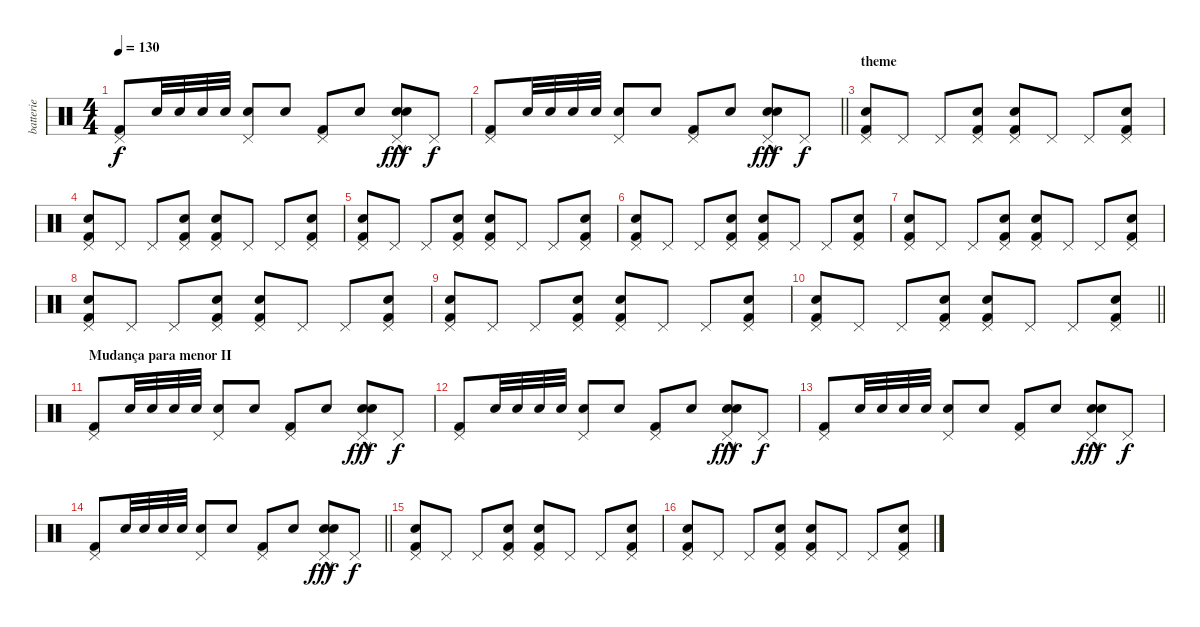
\track ("batterie" "batterie") {instrument percussion}
\staff {score}
\articulation defaults
\ts (4 4)
\tempo 130
\clef neutral
\ks c
("Pedal Hi-Hat (hit)" "Kick (hit) 2").8{dy f} "Snare (hit) 2".32 "Snare (hit) 2".32 "Snare (hit) 2".32 "Snare (hit) 2".32 ("Pedal Hi-Hat (hit)" "Snare (hit) 2").8 "Snare (hit) 2".8 ("Pedal Hi-Hat (hit)" "Kick (hit) 2").8 "Snare (hit) 2".8 ("Pedal Hi-Hat (hit)" "Snare (hit) 2"{hac} "Snare (hit) 2"{hac}).8{dy fff} "Pedal Hi-Hat (hit)".8{dy f} |
\barLineRight lightlight
("Pedal Hi-Hat (hit)" "Kick (hit) 2").8 "Snare (hit) 2".32 "Snare (hit) 2".32 "Snare (hit) 2".32 "Snare (hit) 2".32 ("Pedal Hi-Hat (hit)" "Snare (hit) 2").8 "Snare (hit) 2".8 ("Pedal Hi-Hat (hit)" "Kick (hit) 2").8 "Snare (hit) 2".8 ("Pedal Hi-Hat (hit)" "Snare (hit) 2"{hac} "Snare (hit) 2"{hac}).8{dy fff} "Pedal Hi-Hat (hit)".8{dy f} |
\section ("" "theme")
("Pedal Hi-Hat (hit)" "Snare (hit) 2" "Kick (hit) 2").8 "Pedal Hi-Hat (hit)".8 "Pedal Hi-Hat (hit)".8 ("Pedal Hi-Hat (hit)" "Snare (hit) 2" "Kick (hit) 2").8 ("Pedal Hi-Hat (hit)" "Snare (hit) 2" "Kick (hit) 2").8 "Pedal Hi-Hat (hit)".8 "Pedal Hi-Hat (hit)".8 ("Pedal Hi-Hat (hit)" "Snare (hit) 2" "Kick (hit) 2").8 |
("Pedal Hi-Hat (hit)" "Snare (hit) 2" "Kick (hit) 2").8 "Pedal Hi-Hat (hit)".8 "Pedal Hi-Hat (hit)".8 ("Pedal Hi-Hat (hit)" "Snare (hit) 2" "Kick (hit) 2").8 ("Pedal Hi-Hat (hit)" "Snare (hit) 2" "Kick (hit) 2").8 "Pedal Hi-Hat (hit)".8 "Pedal Hi-Hat (hit)".8 ("Pedal Hi-Hat (hit)" "Snare (hit) 2" "Kick (hit) 2").8 |
("Pedal Hi-Hat (hit)" "Snare (hit) 2" "Kick (hit) 2").8 "Pedal Hi-Hat (hit)".8 "Pedal Hi-Hat (hit)".8 ("Pedal Hi-Hat (hit)" "Snare (hit) 2" "Kick (hit) 2").8 ("Pedal Hi-Hat (hit)" "Snare (hit) 2" "Kick (hit) 2").8 "Pedal Hi-Hat (hit)".8 "Pedal Hi-Hat (hit)".8 ("Pedal Hi-Hat (hit)" "Snare (hit) 2" "Kick (hit) 2").8 |
("Pedal Hi-Hat (hit)" "Snare (hit) 2" "Kick (hit) 2").8 "Pedal Hi-Hat (hit)".8 "Pedal Hi-Hat (hit)".8 ("Pedal Hi-Hat (hit)" "Snare (hit) 2" "Kick (hit) 2").8 ("Pedal Hi-Hat (hit)" "Snare (hit) 2" "Kick (hit) 2").8 "Pedal Hi-Hat (hit)".8 "Pedal Hi-Hat (hit)".8 ("Pedal Hi-Hat (hit)" "Snare (hit) 2" "Kick (hit) 2").8 |
("Pedal Hi-Hat (hit)" "Snare (hit) 2" "Kick (hit) 2").8 "Pedal Hi-Hat (hit)".8 "Pedal Hi-Hat (hit)".8 ("Pedal Hi-Hat (hit)" "Snare (hit) 2" "Kick (hit) 2").8 ("Pedal Hi-Hat (hit)" "Snare (hit) 2" "Kick (hit) 2").8 "Pedal Hi-Hat (hit)".8 "Pedal Hi-Hat (hit)".8 ("Pedal Hi-Hat (hit)" "Snare (hit) 2" "Kick (hit) 2").8 |
("Pedal Hi-Hat (hit)" "Snare (hit) 2" "Kick (hit) 2").8 "Pedal Hi-Hat (hit)".8 "Pedal Hi-Hat (hit)".8 ("Pedal Hi-Hat (hit)" "Snare (hit) 2" "Kick (hit) 2").8 ("Pedal Hi-Hat (hit)" "Snare (hit) 2" "Kick (hit) 2").8 "Pedal Hi-Hat (hit)".8 "Pedal Hi-Hat (hit)".8 ("Pedal Hi-Hat (hit)" "Snare (hit) 2" "Kick (hit) 2").8 |
("Pedal Hi-Hat (hit)" "Snare (hit) 2" "Kick (hit) 2").8 "Pedal Hi-Hat (hit)".8 "Pedal Hi-Hat (hit)".8 ("Pedal Hi-Hat (hit)" "Snare (hit) 2" "Kick (hit) 2").8 ("Pedal Hi-Hat (hit)" "Snare (hit) 2" "Kick (hit) 2").8 "Pedal Hi-Hat (hit)".8 "Pedal Hi-Hat (hit)".8 ("Pedal Hi-Hat (hit)" "Snare (hit) 2" "Kick (hit) 2").8 |
\barLineRight lightlight
("Pedal Hi-Hat (hit)" "Snare (hit) 2" "Kick (hit) 2").8 "Pedal Hi-Hat (hit)".8 "Pedal Hi-Hat (hit)".8 ("Pedal Hi-Hat (hit)" "Snare (hit) 2" "Kick (hit) 2").8 ("Pedal Hi-Hat (hit)" "Snare (hit) 2" "Kick (hit) 2").8 "Pedal Hi-Hat (hit)".8 "Pedal Hi-Hat (hit)".8 ("Pedal Hi-Hat (hit)" "Snare (hit) 2" "Kick (hit) 2").8 |
\section ("" "Mudança para menor II")
("Pedal Hi-Hat (hit)" "Kick (hit) 2").8 "Snare (hit) 2".32 "Snare (hit) 2".32 "Snare (hit) 2".32 "Snare (hit) 2".32 ("Pedal Hi-Hat (hit)" "Snare (hit) 2").8 "Snare (hit) 2".8 ("Pedal Hi-Hat (hit)" "Kick (hit) 2").8 "Snare (hit) 2".8 ("Pedal Hi-Hat (hit)" "Snare (hit) 2"{hac} "Snare (hit) 2"{hac}).8{dy fff} "Pedal Hi-Hat (hit)".8{dy f} |
("Pedal Hi-Hat (hit)" "Kick (hit) 2").8 "Snare (hit) 2".32 "Snare (hit) 2".32 "Snare (hit) 2".32 "Snare (hit) 2".32 ("Pedal Hi-Hat (hit)" "Snare (hit) 2").8 "Snare (hit) 2".8 ("Pedal Hi-Hat (hit)" "Kick (hit) 2").8 "Snare (hit) 2".8 ("Pedal Hi-Hat (hit)" "Snare (hit) 2"{hac} "Snare (hit) 2"{hac}).8{dy fff} "Pedal Hi-Hat (hit)".8{dy f} |
("Pedal Hi-Hat (hit)" "Kick (hit) 2").8 "Snare (hit) 2".32 "Snare (hit) 2".32 "Snare (hit) 2".32 "Snare (hit) 2".32 ("Pedal Hi-Hat (hit)" "Snare (hit) 2").8 "Snare (hit) 2".8 ("Pedal Hi-Hat (hit)" "Kick (hit) 2").8 "Snare (hit) 2".8 ("Pedal Hi-Hat (hit)" "Snare (hit) 2"{hac} "Snare (hit) 2"{hac}).8{dy fff} "Pedal Hi-Hat (hit)".8{dy f} |
\barLineRight lightlight
("Pedal Hi-Hat (hit)" "Kick (hit) 2").8 "Snare (hit) 2".32 "Snare (hit) 2".32 "Snare (hit) 2".32 "Snare (hit) 2".32 ("Pedal Hi-Hat (hit)" "Snare (hit) 2").8 "Snare (hit) 2".8 ("Pedal Hi-Hat (hit)" "Kick (hit) 2").8 "Snare (hit) 2".8 ("Pedal Hi-Hat (hit)" "Snare (hit) 2"{hac} "Snare (hit) 2"{hac}).8{dy fff} "Pedal Hi-Hat (hit)".8{dy f} |
("Pedal Hi-Hat (hit)" "Snare (hit) 2" "Kick (hit) 2").8 "Pedal Hi-Hat (hit)".8 "Pedal Hi-Hat (hit)".8 ("Pedal Hi-Hat (hit)" "Snare (hit) 2" "Kick (hit) 2").8 ("Pedal Hi-Hat (hit)" "Snare (hit) 2" "Kick (hit) 2").8 "Pedal Hi-Hat (hit)".8 "Pedal Hi-Hat (hit)".8 ("Pedal Hi-Hat (hit)" "Snare (hit) 2" "Kick (hit) 2").8 |
("Pedal Hi-Hat (hit)" "Snare (hit) 2" "Kick (hit) 2").8 "Pedal Hi-Hat (hit)".8 "Pedal Hi-Hat (hit)".8 ("Pedal Hi-Hat (hit)" "Snare (hit) 2" "Kick (hit) 2").8 ("Pedal Hi-Hat (hit)" "Snare (hit) 2" "Kick (hit) 2").8 "Pedal Hi-Hat (hit)".8 "Pedal Hi-Hat (hit)".8 ("Pedal Hi-Hat (hit)" "Snare (hit) 2" "Kick (hit) 2").8
